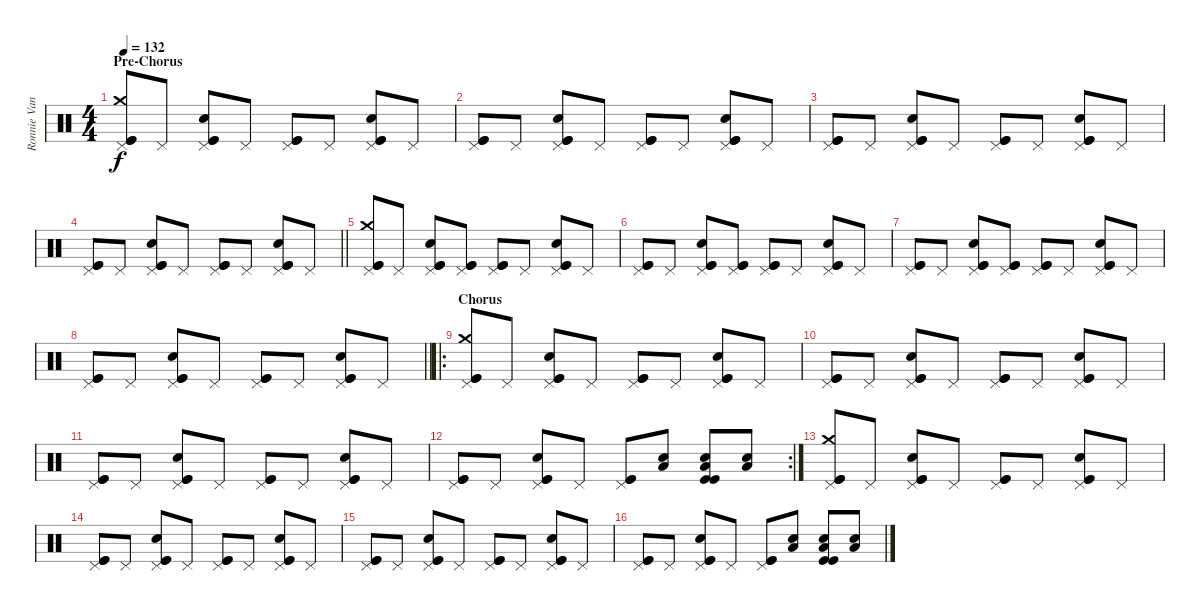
\track ("Ronnie Vanucci" "Ronnie Van") {instrument percussion}
\staff {score}
\articulation defaults
\ts (4 4)
\section ("" "Pre-Chorus")
\tempo 132
\clef neutral
\ks c
("Pedal Hi-Hat (hit)" "Crash medium (hit)" "Kick (hit)" "Kick (hit)").8{dy f} "Pedal Hi-Hat (hit)".8 ("Pedal Hi-Hat (hit)" "Electric Snare (hit)" "Kick (hit)" "Kick (hit)").8 "Pedal Hi-Hat (hit)".8 ("Pedal Hi-Hat (hit)" "Kick (hit)" "Kick (hit)").8 "Pedal Hi-Hat (hit)".8 ("Pedal Hi-Hat (hit)" "Electric Snare (hit)" "Kick (hit)" "Kick (hit)").8 "Pedal Hi-Hat (hit)".8 |
("Pedal Hi-Hat (hit)" "Kick (hit)" "Kick (hit)").8 "Pedal Hi-Hat (hit)".8 ("Pedal Hi-Hat (hit)" "Electric Snare (hit)" "Kick (hit)" "Kick (hit)").8 "Pedal Hi-Hat (hit)".8 ("Pedal Hi-Hat (hit)" "Kick (hit)" "Kick (hit)").8 "Pedal Hi-Hat (hit)".8 ("Pedal Hi-Hat (hit)" "Electric Snare (hit)" "Kick (hit)" "Kick (hit)").8 "Pedal Hi-Hat (hit)".8 |
("Pedal Hi-Hat (hit)" "Kick (hit)" "Kick (hit)").8 "Pedal Hi-Hat (hit)".8 ("Pedal Hi-Hat (hit)" "Electric Snare (hit)" "Kick (hit)" "Kick (hit)").8 "Pedal Hi-Hat (hit)".8 ("Pedal Hi-Hat (hit)" "Kick (hit)" "Kick (hit)").8 "Pedal Hi-Hat (hit)".8 ("Pedal Hi-Hat (hit)" "Electric Snare (hit)" "Kick (hit)" "Kick (hit)").8 "Pedal Hi-Hat (hit)".8 |
\barLineRight lightlight
("Pedal Hi-Hat (hit)" "Kick (hit)" "Kick (hit)").8 "Pedal Hi-Hat (hit)".8 ("Pedal Hi-Hat (hit)" "Electric Snare (hit)" "Kick (hit)" "Kick (hit)").8 "Pedal Hi-Hat (hit)".8 ("Pedal Hi-Hat (hit)" "Kick (hit)" "Kick (hit)").8 "Pedal Hi-Hat (hit)".8 ("Pedal Hi-Hat (hit)" "Electric Snare (hit)" "Kick (hit)" "Kick (hit)").8 "Pedal Hi-Hat (hit)".8 |
("Pedal Hi-Hat (hit)" "Crash medium (hit)" "Kick (hit)" "Kick (hit)").8 "Pedal Hi-Hat (hit)".8 ("Pedal Hi-Hat (hit)" "Electric Snare (hit)" "Kick (hit)" "Kick (hit)").8 ("Pedal Hi-Hat (hit)" "Kick (hit)" "Kick (hit)").8 ("Pedal Hi-Hat (hit)" "Kick (hit)" "Kick (hit)").8 "Pedal Hi-Hat (hit)".8 ("Pedal Hi-Hat (hit)" "Electric Snare (hit)" "Kick (hit)" "Kick (hit)").8 "Pedal Hi-Hat (hit)".8 |
("Pedal Hi-Hat (hit)" "Kick (hit)" "Kick (hit)").8 "Pedal Hi-Hat (hit)".8 ("Pedal Hi-Hat (hit)" "Electric Snare (hit)" "Kick (hit)" "Kick (hit)").8 ("Pedal Hi-Hat (hit)" "Kick (hit)" "Kick (hit)").8 ("Pedal Hi-Hat (hit)" "Kick (hit)" "Kick (hit)").8 "Pedal Hi-Hat (hit)".8 ("Pedal Hi-Hat (hit)" "Electric Snare (hit)" "Kick (hit)" "Kick (hit)").8 "Pedal Hi-Hat (hit)".8 |
("Pedal Hi-Hat (hit)" "Kick (hit)" "Kick (hit)").8 "Pedal Hi-Hat (hit)".8 ("Pedal Hi-Hat (hit)" "Electric Snare (hit)" "Kick (hit)" "Kick (hit)").8 ("Pedal Hi-Hat (hit)" "Kick (hit)" "Kick (hit)").8 ("Pedal Hi-Hat (hit)" "Kick (hit)" "Kick (hit)").8 "Pedal Hi-Hat (hit)".8 ("Pedal Hi-Hat (hit)" "Electric Snare (hit)" "Kick (hit)" "Kick (hit)").8 "Pedal Hi-Hat (hit)".8 |
\barLineRight lightlight
("Pedal Hi-Hat (hit)" "Kick (hit)" "Kick (hit)").8 "Pedal Hi-Hat (hit)".8 ("Pedal Hi-Hat (hit)" "Electric Snare (hit)" "Kick (hit)" "Kick (hit)").8 "Pedal Hi-Hat (hit)".8 ("Pedal Hi-Hat (hit)" "Kick (hit)" "Kick (hit)").8 "Pedal Hi-Hat (hit)".8 ("Pedal Hi-Hat (hit)" "Electric Snare (hit)" "Kick (hit)" "Kick (hit)").8 "Pedal Hi-Hat (hit)".8 |
\ro
\section ("" "Chorus")
("Pedal Hi-Hat (hit)" "Crash medium (hit)" "Kick (hit)" "Kick (hit)").8 "Pedal Hi-Hat (hit)".8 ("Pedal Hi-Hat (hit)" "Electric Snare (hit)" "Kick (hit)" "Kick (hit)").8 "Pedal Hi-Hat (hit)".8 ("Pedal Hi-Hat (hit)" "Kick (hit)" "Kick (hit)").8 "Pedal Hi-Hat (hit)".8 ("Pedal Hi-Hat (hit)" "Electric Snare (hit)" "Kick (hit)" "Kick (hit)").8 "Pedal Hi-Hat (hit)".8 |
("Pedal Hi-Hat (hit)" "Kick (hit)" "Kick (hit)").8 "Pedal Hi-Hat (hit)".8 ("Pedal Hi-Hat (hit)" "Electric Snare (hit)" "Kick (hit)" "Kick (hit)").8 "Pedal Hi-Hat (hit)".8 ("Pedal Hi-Hat (hit)" "Kick (hit)" "Kick (hit)").8 "Pedal Hi-Hat (hit)".8 ("Pedal Hi-Hat (hit)" "Electric Snare (hit)" "Kick (hit)" "Kick (hit)").8 "Pedal Hi-Hat (hit)".8 |
("Pedal Hi-Hat (hit)" "Kick (hit)" "Kick (hit)").8 "Pedal Hi-Hat (hit)".8 ("Pedal Hi-Hat (hit)" "Electric Snare (hit)" "Kick (hit)" "Kick (hit)").8 "Pedal Hi-Hat (hit)".8 ("Pedal Hi-Hat (hit)" "Kick (hit)" "Kick (hit)").8 "Pedal Hi-Hat (hit)".8 ("Pedal Hi-Hat (hit)" "Electric Snare (hit)" "Kick (hit)" "Kick (hit)").8 "Pedal Hi-Hat (hit)".8 |
\rc 2
("Pedal Hi-Hat (hit)" "Kick (hit)" "Kick (hit)").8 "Pedal Hi-Hat (hit)".8 ("Pedal Hi-Hat (hit)" "Electric Snare (hit)" "Kick (hit)" "Kick (hit)").8 "Pedal Hi-Hat (hit)".8 ("Pedal Hi-Hat (hit)" "Kick (hit)" "Kick (hit)").8 ("Low Floor Tom (hit)" "Electric Snare (hit)").8 ("Low Floor Tom (hit)" "Electric Snare (hit)" "Kick (hit)" "Kick (hit)").8 ("Low Floor Tom (hit)" "Electric Snare (hit)").8 |
("Pedal Hi-Hat (hit)" "Crash medium (hit)" "Kick (hit)" "Kick (hit)").8 "Pedal Hi-Hat (hit)".8 ("Pedal Hi-Hat (hit)" "Electric Snare (hit)" "Kick (hit)" "Kick (hit)").8 "Pedal Hi-Hat (hit)".8 ("Pedal Hi-Hat (hit)" "Kick (hit)" "Kick (hit)").8 "Pedal Hi-Hat (hit)".8 ("Pedal Hi-Hat (hit)" "Electric Snare (hit)" "Kick (hit)" "Kick (hit)").8 "Pedal Hi-Hat (hit)".8 |
("Pedal Hi-Hat (hit)" "Kick (hit)" "Kick (hit)").8 "Pedal Hi-Hat (hit)".8 ("Pedal Hi-Hat (hit)" "Electric Snare (hit)" "Kick (hit)" "Kick (hit)").8 "Pedal Hi-Hat (hit)".8 ("Pedal Hi-Hat (hit)" "Kick (hit)" "Kick (hit)").8 "Pedal Hi-Hat (hit)".8 ("Pedal Hi-Hat (hit)" "Electric Snare (hit)" "Kick (hit)" "Kick (hit)").8 "Pedal Hi-Hat (hit)".8 |
("Pedal Hi-Hat (hit)" "Kick (hit)" "Kick (hit)").8 "Pedal Hi-Hat (hit)".8 ("Pedal Hi-Hat (hit)" "Electric Snare (hit)" "Kick (hit)" "Kick (hit)").8 "Pedal Hi-Hat (hit)".8 ("Pedal Hi-Hat (hit)" "Kick (hit)" "Kick (hit)").8 "Pedal Hi-Hat (hit)".8 ("Pedal Hi-Hat (hit)" "Electric Snare (hit)" "Kick (hit)" "Kick (hit)").8 "Pedal Hi-Hat (hit)".8 |
("Pedal Hi-Hat (hit)" "Kick (hit)" "Kick (hit)").8 "Pedal Hi-Hat (hit)".8 ("Pedal Hi-Hat (hit)" "Electric Snare (hit)" "Kick (hit)" "Kick (hit)").8 "Pedal Hi-Hat (hit)".8 ("Pedal Hi-Hat (hit)" "Kick (hit)" "Kick (hit)").8 ("Low Floor Tom (hit)" "Electric Snare (hit)").8 ("Low Floor Tom (hit)" "Electric Snare (hit)" "Kick (hit)" "Kick (hit)").8 ("Low Floor Tom (hit)" "Electric Snare (hit)").8
